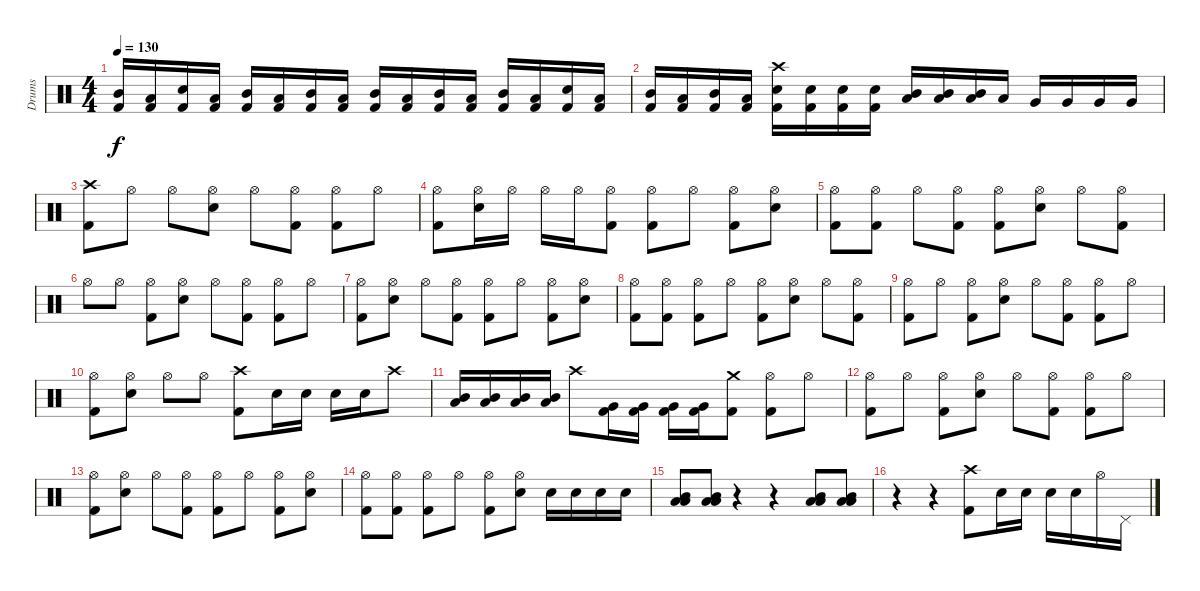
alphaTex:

\track ("Drums" "Drums") {instrument percussion}
\staff {score}
\articulation defaults
\ts (4 4)
\tempo 130
\clef neutral
\ks c
("Kick (hit) 2" "Mid Tom (hit)").16{dy f} ("Kick (hit) 2" "Low Tom (hit)").16 ("Kick (hit) 2" "Snare (hit) 2").16 ("Kick (hit) 2" "Low Tom (hit)").16 ("Kick (hit) 2" "Mid Tom (hit)").16 ("Kick (hit) 2" "Low Tom (hit)").16 ("Kick (hit) 2" "Mid Tom (hit)").16 ("Kick (hit) 2" "Low Tom (hit)").16 ("Kick (hit) 2" "Mid Tom (hit)").16 ("Kick (hit) 2" "Low Tom (hit)").16 ("Kick (hit) 2" "Mid Tom (hit)").16 ("Kick (hit) 2" "Low Tom (hit)").16 ("Kick (hit) 2" "Mid Tom (hit)").16 ("Kick (hit) 2" "Low Tom (hit)").16 ("Kick (hit) 2" "Snare (hit) 2").16 ("Kick (hit) 2" "Low Tom (hit)").16 |
("Kick (hit) 2" "Mid Tom (hit)").16 ("Kick (hit) 2" "Low Tom (hit)").16 ("Kick (hit) 2" "Mid Tom (hit)").16 ("Kick (hit) 2" "Low Tom (hit)").16 ("Kick (hit) 2" "Snare (hit) 2" "Crash high (hit)").16 ("Kick (hit) 2" "Snare (hit) 2").16 ("Kick (hit) 2" "Snare (hit) 2").16 ("Kick (hit) 2" "Snare (hit) 2").16 ("Mid Tom (hit)" "Low Tom (hit)").16 ("Mid Tom (hit)" "Low Tom (hit)").16 ("Mid Tom (hit)" "Low Tom (hit)").16 "Low Tom (hit)".16 "Very Low Tom (hit)".16 "Very Low Tom (hit)".16 "Very Low Tom (hit)".16 "Very Low Tom (hit)".16 |
("Crash high (hit)" "Kick (hit) 2").8 "Hi-Hat (open)".8 "Hi-Hat (open)".8 ("Hi-Hat (open)" "Snare (hit) 2").8 "Hi-Hat (open)".8 ("Hi-Hat (open)" "Kick (hit) 2").8 ("Hi-Hat (open)" "Kick (hit) 2").8 "Hi-Hat (open)".8 |
("Hi-Hat (open)" "Kick (hit) 2").8 ("Hi-Hat (open)" "Snare (hit) 2").16 "Hi-Hat (open)".16 "Hi-Hat (open)".16 "Hi-Hat (open)".16 ("Hi-Hat (open)" "Kick (hit) 2").8 ("Hi-Hat (open)" "Kick (hit) 2").8 "Hi-Hat (open)".8 ("Hi-Hat (open)" "Kick (hit) 2").8 ("Hi-Hat (open)" "Snare (hit) 2").8 |
("Hi-Hat (open)" "Kick (hit) 2").8 ("Hi-Hat (open)" "Kick (hit) 2").8 "Hi-Hat (open)".8 ("Hi-Hat (open)" "Kick (hit) 2").8 ("Hi-Hat (open)" "Kick (hit) 2").8 ("Hi-Hat (open)" "Snare (hit) 2").8 "Hi-Hat (open)".8 ("Hi-Hat (open)" "Kick (hit) 2").8 |
"Hi-Hat (open)".8 "Hi-Hat (open)".8 ("Hi-Hat (open)" "Kick (hit) 2").8 ("Hi-Hat (open)" "Snare (hit) 2").8 "Hi-Hat (open)".8 ("Hi-Hat (open)" "Kick (hit) 2").8 ("Hi-Hat (open)" "Kick (hit) 2").8 "Hi-Hat (open)".8 |
("Hi-Hat (open)" "Kick (hit) 2").8 ("Hi-Hat (open)" "Snare (hit) 2").8 "Hi-Hat (open)".8 ("Hi-Hat (open)" "Kick (hit) 2").8 ("Hi-Hat (open)" "Kick (hit) 2").8 "Hi-Hat (open)".8 ("Hi-Hat (open)" "Kick (hit) 2").8 ("Hi-Hat (open)" "Snare (hit) 2").8 |
("Hi-Hat (open)" "Kick (hit) 2").8 ("Hi-Hat (open)" "Kick (hit) 2").8 ("Hi-Hat (open)" "Kick (hit) 2").8 "Hi-Hat (open)".8 ("Hi-Hat (open)" "Kick (hit) 2").8 ("Hi-Hat (open)" "Snare (hit) 2").8 "Hi-Hat (open)".8 ("Hi-Hat (open)" "Kick (hit) 2").8 |
("Hi-Hat (open)" "Kick (hit) 2").8 "Hi-Hat (open)".8 ("Hi-Hat (open)" "Kick (hit) 2").8 ("Hi-Hat (open)" "Snare (hit) 2").8 "Hi-Hat (open)".8 ("Hi-Hat (open)" "Kick (hit) 2").8 ("Hi-Hat (open)" "Kick (hit) 2").8 "Hi-Hat (open)".8 |
("Hi-Hat (open)" "Kick (hit) 2").8 ("Hi-Hat (open)" "Snare (hit) 2").8 "Hi-Hat (open)".8 "Hi-Hat (open)".8 ("Crash high (hit)" "Kick (hit) 2").8 "Snare (hit) 2".16 "Snare (hit) 2".16 "Snare (hit) 2".16 "Snare (hit) 2".16 "Crash high (hit)".8 |
("Mid Tom (hit)" "Low Tom (hit)").16 ("Mid Tom (hit)" "Low Tom (hit)").16 ("Mid Tom (hit)" "Low Tom (hit)").16 ("Mid Tom (hit)" "Low Tom (hit)").16 "Crash high (hit)".8 ("Kick (hit) 2" "Very Low Tom (hit)").16 ("Kick (hit) 2" "Very Low Tom (hit)").16 ("Kick (hit) 2" "Very Low Tom (hit)").16 ("Kick (hit) 2" "Very Low Tom (hit)").16 ("Crash medium (hit)" "Kick (hit) 2").8 ("Hi-Hat (open)" "Kick (hit) 2").8 "Hi-Hat (open)".8 |
("Hi-Hat (open)" "Kick (hit) 2").8 "Hi-Hat (open)".8 ("Hi-Hat (open)" "Kick (hit) 2").8 ("Hi-Hat (open)" "Snare (hit) 2").8 "Hi-Hat (open)".8 ("Hi-Hat (open)" "Kick (hit) 2").8 ("Hi-Hat (open)" "Kick (hit) 2").8 "Hi-Hat (open)".8 |
("Hi-Hat (open)" "Kick (hit) 2").8 ("Hi-Hat (open)" "Snare (hit) 2").8 "Hi-Hat (open)".8 ("Hi-Hat (open)" "Kick (hit) 2").8 ("Hi-Hat (open)" "Kick (hit) 2").8 "Hi-Hat (open)".8 ("Hi-Hat (open)" "Kick (hit) 2").8 ("Hi-Hat (open)" "Snare (hit) 2").8 |
("Hi-Hat (open)" "Kick (hit) 2").8 ("Hi-Hat (open)" "Kick (hit) 2").8 ("Hi-Hat (open)" "Kick (hit) 2").8 "Hi-Hat (open)".8 ("Hi-Hat (open)" "Kick (hit) 2").8 ("Hi-Hat (open)" "Snare (hit) 2").8 "Snare (hit) 2".16 "Snare (hit) 2".16 "Snare (hit) 2".16 "Snare (hit) 2".16 |
("Low Tom (hit)" "Low Tom (hit)" "Mid Tom (hit)").8 ("Low Tom (hit)" "Low Tom (hit)" "Mid Tom (hit)").8 r.4 r.4 ("Low Tom (hit)" "Low Tom (hit)" "Mid Tom (hit)").8 ("Low Tom (hit)" "Low Tom (hit)" "Mid Tom (hit)").8 |
r.4 r.4 ("Crash high (hit)" "Kick (hit) 2").8 "Snare (hit) 2".16 "Snare (hit) 2".16 "Snare (hit) 2".16 "Snare (hit) 2".16 "Hi-Hat (open)".16 "Pedal Hi-Hat (hit)".16
